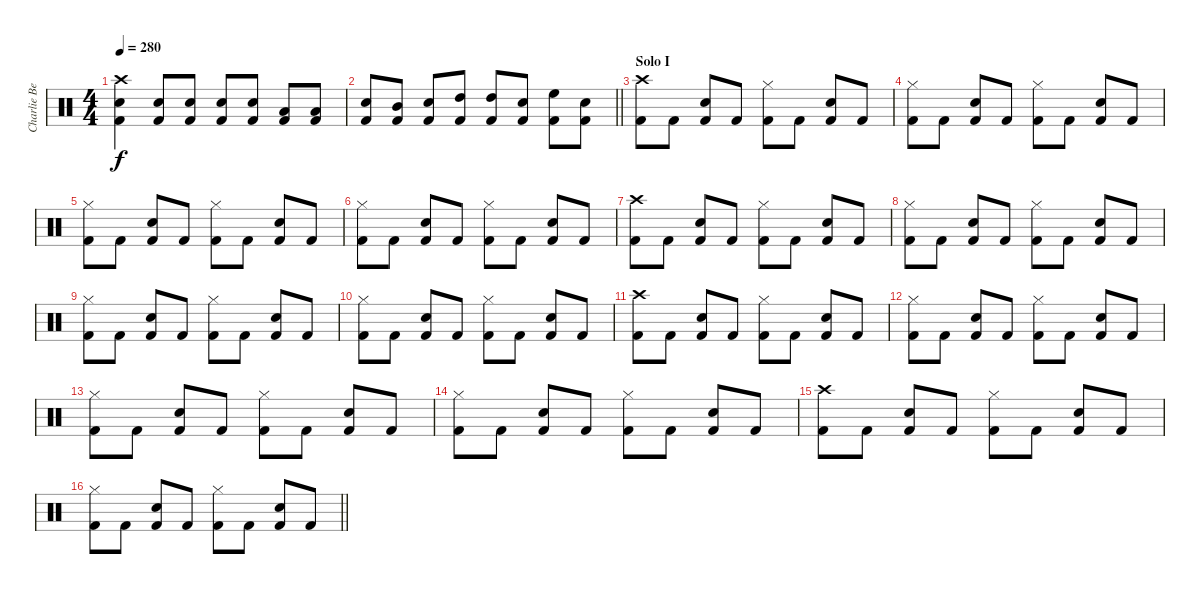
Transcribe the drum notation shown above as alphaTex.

\track ("Charlie Benante" "Charlie Be") {instrument percussion}
\staff {score}
\articulation defaults
\ts (4 4)
\tempo 280
\clef neutral
\ks c
("Crash high (hit)" "Snare (hit) 2" "Kick (hit) 2").4{dy f} ("Snare (hit) 2" "Kick (hit) 2").8 ("Snare (hit) 2" "Kick (hit) 2").8 ("Snare (hit) 2" "Kick (hit) 2").8 ("Snare (hit) 2" "Kick (hit) 2").8 ("Low Tom (hit)" "Kick (hit) 2").8 ("Low Tom (hit)" "Kick (hit) 2").8 |
\barLineRight lightlight
("Snare (hit) 2" "Kick (hit) 2").8 ("Mid Tom (hit)" "Kick (hit) 2").8 ("Snare (hit) 2" "Kick (hit) 2").8 ("High Tom (hit)" "Kick (hit) 2").8 ("High Tom (hit)" "Kick (hit) 2").8 ("Snare (hit) 2" "Kick (hit) 2").8 ("High Floor Tom (hit)" "Kick (hit) 2").8 ("Snare (hit) 2" "Kick (hit) 2").8 |
\section ("" "Solo I")
("Crash high (hit)" "Kick (hit) 2").8 "Kick (hit) 2".8 ("Snare (hit) 2" "Kick (hit) 2").8 "Kick (hit) 2".8 ("Hi-Hat (closed)" "Kick (hit) 2").8 "Kick (hit) 2".8 ("Snare (hit) 2" "Kick (hit) 2").8 "Kick (hit) 2".8 |
("Hi-Hat (closed)" "Kick (hit) 2").8 "Kick (hit) 2".8 ("Snare (hit) 2" "Kick (hit) 2").8 "Kick (hit) 2".8 ("Hi-Hat (closed)" "Kick (hit) 2").8 "Kick (hit) 2".8 ("Snare (hit) 2" "Kick (hit) 2").8 "Kick (hit) 2".8 |
("Hi-Hat (closed)" "Kick (hit) 2").8 "Kick (hit) 2".8 ("Snare (hit) 2" "Kick (hit) 2").8 "Kick (hit) 2".8 ("Hi-Hat (closed)" "Kick (hit) 2").8 "Kick (hit) 2".8 ("Snare (hit) 2" "Kick (hit) 2").8 "Kick (hit) 2".8 |
("Hi-Hat (closed)" "Kick (hit) 2").8 "Kick (hit) 2".8 ("Snare (hit) 2" "Kick (hit) 2").8 "Kick (hit) 2".8 ("Hi-Hat (closed)" "Kick (hit) 2").8 "Kick (hit) 2".8 ("Snare (hit) 2" "Kick (hit) 2").8 "Kick (hit) 2".8 |
("Crash high (hit)" "Kick (hit) 2").8 "Kick (hit) 2".8 ("Snare (hit) 2" "Kick (hit) 2").8 "Kick (hit) 2".8 ("Hi-Hat (closed)" "Kick (hit) 2").8 "Kick (hit) 2".8 ("Snare (hit) 2" "Kick (hit) 2").8 "Kick (hit) 2".8 |
("Hi-Hat (closed)" "Kick (hit) 2").8 "Kick (hit) 2".8 ("Snare (hit) 2" "Kick (hit) 2").8 "Kick (hit) 2".8 ("Hi-Hat (closed)" "Kick (hit) 2").8 "Kick (hit) 2".8 ("Snare (hit) 2" "Kick (hit) 2").8 "Kick (hit) 2".8 |
("Hi-Hat (closed)" "Kick (hit) 2").8 "Kick (hit) 2".8 ("Snare (hit) 2" "Kick (hit) 2").8 "Kick (hit) 2".8 ("Hi-Hat (closed)" "Kick (hit) 2").8 "Kick (hit) 2".8 ("Snare (hit) 2" "Kick (hit) 2").8 "Kick (hit) 2".8 |
("Hi-Hat (closed)" "Kick (hit) 2").8 "Kick (hit) 2".8 ("Snare (hit) 2" "Kick (hit) 2").8 "Kick (hit) 2".8 ("Hi-Hat (closed)" "Kick (hit) 2").8 "Kick (hit) 2".8 ("Snare (hit) 2" "Kick (hit) 2").8 "Kick (hit) 2".8 |
("Crash high (hit)" "Kick (hit) 2").8 "Kick (hit) 2".8 ("Snare (hit) 2" "Kick (hit) 2").8 "Kick (hit) 2".8 ("Hi-Hat (closed)" "Kick (hit) 2").8 "Kick (hit) 2".8 ("Snare (hit) 2" "Kick (hit) 2").8 "Kick (hit) 2".8 |
("Hi-Hat (closed)" "Kick (hit) 2").8 "Kick (hit) 2".8 ("Snare (hit) 2" "Kick (hit) 2").8 "Kick (hit) 2".8 ("Hi-Hat (closed)" "Kick (hit) 2").8 "Kick (hit) 2".8 ("Snare (hit) 2" "Kick (hit) 2").8 "Kick (hit) 2".8 |
("Hi-Hat (closed)" "Kick (hit) 2").8 "Kick (hit) 2".8 ("Snare (hit) 2" "Kick (hit) 2").8 "Kick (hit) 2".8 ("Hi-Hat (closed)" "Kick (hit) 2").8 "Kick (hit) 2".8 ("Snare (hit) 2" "Kick (hit) 2").8 "Kick (hit) 2".8 |
("Hi-Hat (closed)" "Kick (hit) 2").8 "Kick (hit) 2".8 ("Snare (hit) 2" "Kick (hit) 2").8 "Kick (hit) 2".8 ("Hi-Hat (closed)" "Kick (hit) 2").8 "Kick (hit) 2".8 ("Snare (hit) 2" "Kick (hit) 2").8 "Kick (hit) 2".8 |
("Crash high (hit)" "Kick (hit) 2").8 "Kick (hit) 2".8 ("Snare (hit) 2" "Kick (hit) 2").8 "Kick (hit) 2".8 ("Hi-Hat (closed)" "Kick (hit) 2").8 "Kick (hit) 2".8 ("Snare (hit) 2" "Kick (hit) 2").8 "Kick (hit) 2".8 |
\barLineRight lightlight
("Hi-Hat (closed)" "Kick (hit) 2").8 "Kick (hit) 2".8 ("Snare (hit) 2" "Kick (hit) 2").8 "Kick (hit) 2".8 ("Hi-Hat (closed)" "Kick (hit) 2").8 "Kick (hit) 2".8 ("Snare (hit) 2" "Kick (hit) 2").8 "Kick (hit) 2".8
